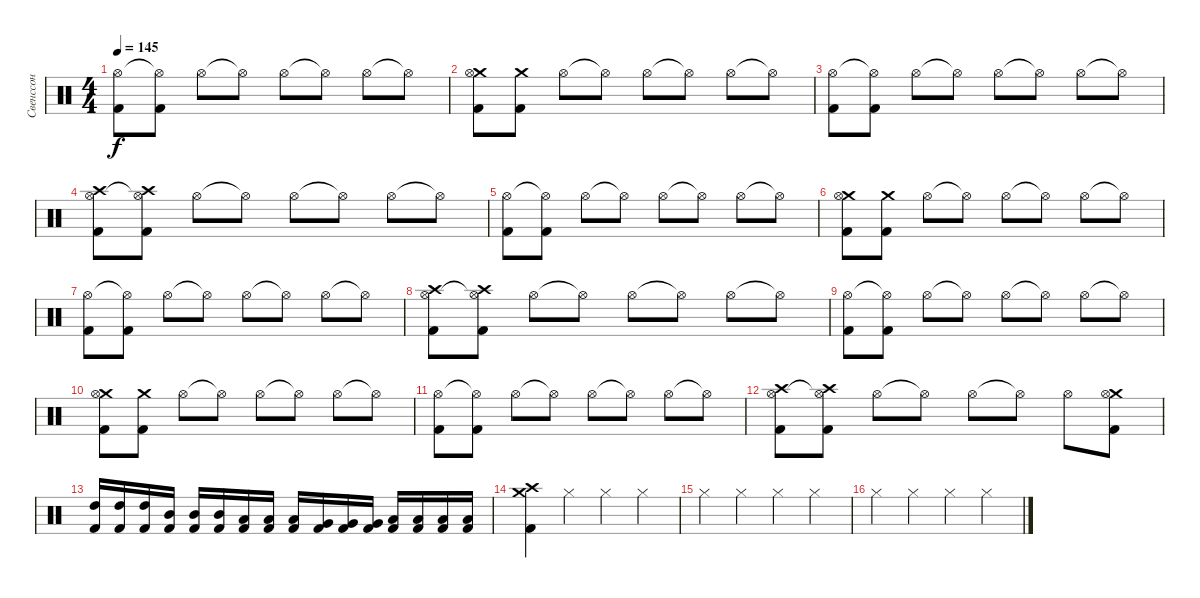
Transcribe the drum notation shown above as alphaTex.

\track ("Свенссон" "Свенссон") {instrument percussion}
\staff {score}
\articulation defaults
\ts (4 4)
\tempo 145
\clef neutral
\ks c
("Hi-Hat (open)" "Kick (hit) 2").8{dy f} ("Hi-Hat (open)"{t} "Kick (hit) 2").8 "Hi-Hat (open)".8 "Hi-Hat (open)"{t}.8 "Hi-Hat (open)".8 "Hi-Hat (open)"{t}.8 "Hi-Hat (open)".8 "Hi-Hat (open)"{t}.8 |
("Crash medium (hit)" "Hi-Hat (open)" "Kick (hit) 2").8 ("Crash medium (hit)" "Kick (hit) 2").8 "Hi-Hat (open)".8 "Hi-Hat (open)"{t}.8 "Hi-Hat (open)".8 "Hi-Hat (open)"{t}.8 "Hi-Hat (open)".8 "Hi-Hat (open)"{t}.8 |
("Hi-Hat (open)" "Kick (hit) 2").8 ("Hi-Hat (open)"{t} "Kick (hit) 2").8 "Hi-Hat (open)".8 "Hi-Hat (open)"{t}.8 "Hi-Hat (open)".8 "Hi-Hat (open)"{t}.8 "Hi-Hat (open)".8 "Hi-Hat (open)"{t}.8 |
("Crash high (hit)" "Hi-Hat (open)" "Kick (hit) 2").8 ("Crash high (hit)" "Hi-Hat (open)"{t} "Kick (hit) 2").8 "Hi-Hat (open)".8 "Hi-Hat (open)"{t}.8 "Hi-Hat (open)".8 "Hi-Hat (open)"{t}.8 "Hi-Hat (open)".8 "Hi-Hat (open)"{t}.8 |
("Hi-Hat (open)" "Kick (hit) 2").8 ("Hi-Hat (open)"{t} "Kick (hit) 2").8 "Hi-Hat (open)".8 "Hi-Hat (open)"{t}.8 "Hi-Hat (open)".8 "Hi-Hat (open)"{t}.8 "Hi-Hat (open)".8 "Hi-Hat (open)"{t}.8 |
("Crash medium (hit)" "Hi-Hat (open)" "Kick (hit) 2").8 ("Crash medium (hit)" "Kick (hit) 2").8 "Hi-Hat (open)".8 "Hi-Hat (open)"{t}.8 "Hi-Hat (open)".8 "Hi-Hat (open)"{t}.8 "Hi-Hat (open)".8 "Hi-Hat (open)"{t}.8 |
("Hi-Hat (open)" "Kick (hit) 2").8 ("Hi-Hat (open)"{t} "Kick (hit) 2").8 "Hi-Hat (open)".8 "Hi-Hat (open)"{t}.8 "Hi-Hat (open)".8 "Hi-Hat (open)"{t}.8 "Hi-Hat (open)".8 "Hi-Hat (open)"{t}.8 |
("Crash high (hit)" "Hi-Hat (open)" "Kick (hit) 2").8 ("Crash high (hit)" "Hi-Hat (open)"{t} "Kick (hit) 2").8 "Hi-Hat (open)".8 "Hi-Hat (open)"{t}.8 "Hi-Hat (open)".8 "Hi-Hat (open)"{t}.8 "Hi-Hat (open)".8 "Hi-Hat (open)"{t}.8 |
("Hi-Hat (open)" "Kick (hit) 2").8 ("Hi-Hat (open)"{t} "Kick (hit) 2").8 "Hi-Hat (open)".8 "Hi-Hat (open)"{t}.8 "Hi-Hat (open)".8 "Hi-Hat (open)"{t}.8 "Hi-Hat (open)".8 "Hi-Hat (open)"{t}.8 |
("Crash medium (hit)" "Hi-Hat (open)" "Kick (hit) 2").8 ("Crash medium (hit)" "Kick (hit) 2").8 "Hi-Hat (open)".8 "Hi-Hat (open)"{t}.8 "Hi-Hat (open)".8 "Hi-Hat (open)"{t}.8 "Hi-Hat (open)".8 "Hi-Hat (open)"{t}.8 |
("Hi-Hat (open)" "Kick (hit) 2").8 ("Hi-Hat (open)"{t} "Kick (hit) 2").8 "Hi-Hat (open)".8 "Hi-Hat (open)"{t}.8 "Hi-Hat (open)".8 "Hi-Hat (open)"{t}.8 "Hi-Hat (open)".8 "Hi-Hat (open)"{t}.8 |
("Crash high (hit)" "Hi-Hat (open)" "Kick (hit) 2").8 ("Crash high (hit)" "Hi-Hat (open)"{t} "Kick (hit) 2").8 "Hi-Hat (open)".8 "Hi-Hat (open)"{t}.8 "Hi-Hat (open)".8 "Hi-Hat (open)"{t}.8 "Hi-Hat (open)".8 ("Crash medium (hit)" "Hi-Hat (open)" "Kick (hit) 2").8 |
("High Tom (hit)" "Kick (hit) 2").16 ("High Tom (hit)" "Kick (hit) 2").16 ("High Tom (hit)" "Kick (hit) 2").16 ("Mid Tom (hit)" "Kick (hit) 2").16 ("Mid Tom (hit)" "Kick (hit) 2").16 ("Mid Tom (hit)" "Kick (hit) 2").16 ("Low Tom (hit)" "Kick (hit) 2").16 ("Low Tom (hit)" "Kick (hit) 2").16 ("Low Tom (hit)" "Kick (hit) 2").16 ("Very Low Tom (hit)" "Kick (hit) 2").16 ("Very Low Tom (hit)" "Kick (hit) 2").16 ("Very Low Tom (hit)" "Kick (hit) 2").16 ("Low Floor Tom (hit)" "Kick (hit) 2").16 ("Low Floor Tom (hit)" "Kick (hit) 2").16 ("Low Floor Tom (hit)" "Kick (hit) 2").16 ("Low Floor Tom (hit)" "Kick (hit) 2").16 |
("Crash high (hit)" "Crash medium (hit)" "Kick (hit) 2").4 "Hi-Hat (closed)".4 "Hi-Hat (closed)".4 "Hi-Hat (closed)".4 |
"Hi-Hat (closed)".4 "Hi-Hat (closed)".4 "Hi-Hat (closed)".4 "Hi-Hat (closed)".4 |
"Hi-Hat (closed)".4 "Hi-Hat (closed)".4 "Hi-Hat (closed)".4 "Hi-Hat (closed)".4
